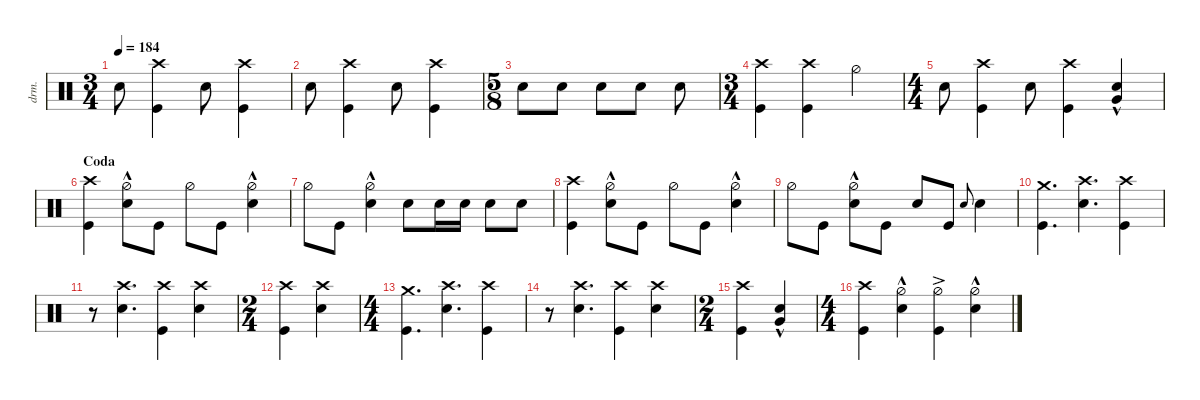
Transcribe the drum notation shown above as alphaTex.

\defaultSystemsLayout 4
\hideDynamics
\bracketExtendMode nobrackets
\otherSystemsTrackNameOrientation horizontal
\track ("Drums" "drm.") {defaultSystemsLayout 4 multiBarRest instrument percussion}
\staff {score}
\articulation defaults
\ts (3 4)
\beaming (8 2 2 2 2)
\tempo 184
\clef neutral
\ks c "Snare (hit) 2".8{dy f}
("Crash high (hit)" "Kick (hit)").4 "Snare (hit) 2".8 ("Crash high (hit)" "Kick (hit)").4 |
"Snare (hit) 2".8 ("Crash high (hit)" "Kick (hit)").4 "Snare (hit) 2".8 ("Crash high (hit)" "Kick (hit)").4 |
\ts (5 8)
\beaming (8 2 2 2 2)
"Snare (hit) 2".8 "Snare (hit) 2".8 "Snare (hit) 2".8 "Snare (hit) 2".8 "Snare (hit) 2".8 |
\ts (3 4)
\beaming (8 2 2 2 2)
("Crash high (hit)" "Kick (hit)").4 ("Crash high (hit)" "Kick (hit)").4 "Hi-Hat (half)".4 |
\ts (4 4)
\beaming (8 2 2 2 2)
"Snare (hit) 2".8 ("Crash high (hit)" "Kick (hit)").4 "Snare (hit) 2".8 ("Crash high (hit)" "Kick (hit)").4 ("Snare (hit) 2" "Very Low Tom (hit)"{hac}).4{dy ff} |
\section ("" "Coda")
("Crash high (hit)" "Kick (hit)").4{dy f} ("Hi-Hat (half)"{hac} "Snare (hit) 2").8 "Kick (hit)".8 "Hi-Hat (half)".8{dy mf} "Kick (hit)".8{dy f} ("Hi-Hat (half)"{hac} "Snare (hit) 2").4 |
"Hi-Hat (half)".8 "Kick (hit)".8 ("Hi-Hat (half)"{hac} "Snare (hit) 2").4 "Snare (hit) 2".8 "Snare (hit) 2".16 "Snare (hit) 2".16 "Snare (hit) 2".8 "Snare (hit) 2".8 |
("Crash high (hit)" "Kick (hit)").4 ("Hi-Hat (half)"{hac} "Snare (hit) 2").8 "Kick (hit)".8 "Hi-Hat (half)".8{dy mf} "Kick (hit)".8{dy f} ("Hi-Hat (half)"{hac} "Snare (hit) 2").4 |
"Hi-Hat (half)".8{dy mf} "Kick (hit)".8{dy f} ("Hi-Hat (half)"{hac} "Snare (hit) 2").8 "Kick (hit)".8 "Snare (hit) 2".8 "Kick (hit)".8 "Snare (hit) 2".8{gr onbeat} "Snare (hit) 2".4 |
("Crash medium (hit)" "Kick (hit)").4{d} ("Snare (hit) 2" "Crash high (hit)").4{d} ("Crash high (hit)" "Kick (hit)").4 |
r.8 ("Snare (hit) 2" "Crash high (hit)").4{d} ("Crash high (hit)" "Kick (hit)").4 ("Snare (hit) 2" "Crash high (hit)").4 |
\ts (2 4)
\beaming (8 2 2 2 2)
("Crash high (hit)" "Kick (hit)").4 ("Snare (hit) 2" "Crash high (hit)").4 |
\ts (4 4)
\beaming (8 2 2 2 2)
("Crash medium (hit)" "Kick (hit)").4{d} ("Snare (hit) 2" "Crash high (hit)").4{d} ("Crash high (hit)" "Kick (hit)").4 |
r.8 ("Snare (hit) 2" "Crash high (hit)").4{d} ("Crash high (hit)" "Kick (hit)").4 ("Snare (hit) 2" "Crash high (hit)").4 |
\ts (2 4)
\beaming (8 2 2 2 2)
("Crash high (hit)" "Kick (hit)").4 ("Snare (hit) 2" "Very Low Tom (hit)"{hac}).4{dy ff} |
\ts (4 4)
\beaming (8 2 2 2 2)
("Crash high (hit)" "Kick (hit)").4{dy f} ("Hi-Hat (half)"{hac} "Snare (hit) 2").4 ("Hi-Hat (half)"{ac} "Kick (hit)").4 ("Hi-Hat (half)"{hac} "Snare (hit) 2").4
